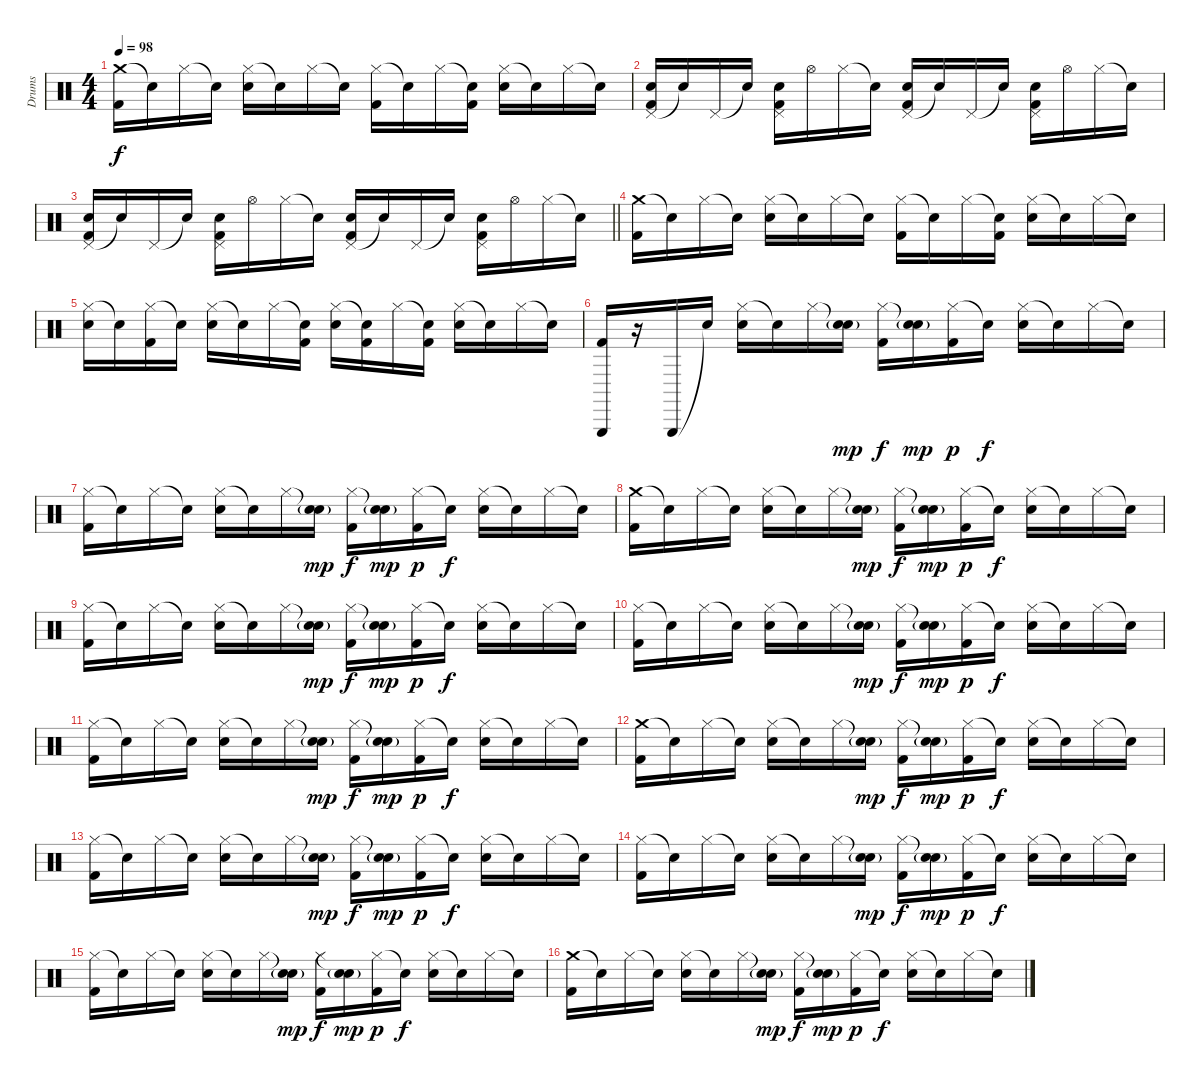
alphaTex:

\track ("Drums" "Drums") {instrument percussion}
\staff {score}
\articulation defaults
\ts (4 4)
\tempo 98
\clef neutral
\ks c
("Crash medium (hit)" "Kick (hit) 2").16{dy f} "Snare (hit)"{t}.16 "Hi-Hat (closed)".16 "Snare (hit)"{t}.16 ("Hi-Hat (closed)" "Snare (hit) 2").16 "Snare (hit)"{t}.16 "Hi-Hat (closed)".16 "Snare (hit)"{t}.16 ("Hi-Hat (closed)" "Kick (hit) 2").16 "Snare (hit)"{t}.16 "Hi-Hat (closed)".16 ("Snare (hit)"{t} "Kick (hit) 2").16 ("Hi-Hat (closed)" "Snare (hit) 2").16 "Snare (hit)"{t}.16 "Hi-Hat (closed)".16 "Snare (hit)"{t}.16 |
("Pedal Hi-Hat (hit)" "Snare (hit) 2" "Kick (hit) 2").16 "Snare (hit)"{t}.16 "Pedal Hi-Hat (hit)".16 "Snare (hit)"{t}.16 ("Pedal Hi-Hat (hit)" "Snare (hit) 2" "Kick (hit) 2").16 "Hi-Hat (open)".16 "Hi-Hat (closed)".16 "Snare (hit)"{t}.16 ("Pedal Hi-Hat (hit)" "Snare (hit) 2" "Kick (hit) 2").16 "Snare (hit)"{t}.16 "Pedal Hi-Hat (hit)".16 "Snare (hit)"{t}.16 ("Pedal Hi-Hat (hit)" "Snare (hit) 2" "Kick (hit) 2").16 "Hi-Hat (open)".16 "Hi-Hat (closed)".16 "Snare (hit)"{t}.16 |
\barLineRight lightlight
("Pedal Hi-Hat (hit)" "Snare (hit) 2" "Kick (hit) 2").16 "Snare (hit)"{t}.16 "Pedal Hi-Hat (hit)".16 "Snare (hit)"{t}.16 ("Pedal Hi-Hat (hit)" "Snare (hit) 2" "Kick (hit) 2").16 "Hi-Hat (open)".16 "Hi-Hat (closed)".16 "Snare (hit)"{t}.16 ("Pedal Hi-Hat (hit)" "Snare (hit) 2" "Kick (hit) 2").16 "Snare (hit)"{t}.16 "Pedal Hi-Hat (hit)".16 "Snare (hit)"{t}.16 ("Pedal Hi-Hat (hit)" "Snare (hit) 2" "Kick (hit) 2").16 "Hi-Hat (open)".16 "Hi-Hat (closed)".16 "Snare (hit)"{t}.16 |
("Crash medium (hit)" "Kick (hit) 2").16 "Snare (hit)"{t}.16 "Hi-Hat (closed)".16 "Snare (hit)"{t}.16 ("Hi-Hat (closed)" "Snare (hit) 2").16 "Snare (hit)"{t}.16 "Hi-Hat (closed)".16 "Snare (hit)"{t}.16 ("Hi-Hat (closed)" "Kick (hit) 2").16 "Snare (hit)"{t}.16 "Hi-Hat (closed)".16 ("Snare (hit)"{t} "Kick (hit) 2").16 ("Hi-Hat (closed)" "Snare (hit) 2").16 "Snare (hit)"{t}.16 "Hi-Hat (closed)".16 "Snare (hit)"{t}.16 |
("Hi-Hat (closed)" "Snare (hit) 2").16 "Snare (hit)"{t}.16 ("Hi-Hat (closed)" "Kick (hit) 2").16 "Snare (hit)"{t}.16 ("Hi-Hat (closed)" "Snare (hit) 2").16 "Snare (hit)"{t}.16 "Hi-Hat (closed)".16 ("Snare (hit)"{t} "Kick (hit) 2").16 ("Hi-Hat (closed)" "Snare (hit) 2").16 ("Snare (hit)"{t} "Kick (hit) 2").16 "Hi-Hat (closed)".16 ("Snare (hit)"{t} "Kick (hit) 2").16 ("Hi-Hat (closed)" "Snare (hit) 2").16 "Snare (hit)"{t}.16 "Hi-Hat (closed)".16 "Snare (hit)"{t}.16 |
("Triangle (hit)" "Kick (hit) 2").16 r.16 "Triangle (hit)".16 "Snare (hit)"{t}.16 ("Hi-Hat (closed)" "Snare (hit) 2").16 "Snare (hit)"{t}.16 "Hi-Hat (closed)".16 ("Snare (hit)"{t} "Snare (hit) 2"{g}).16{dy mp} ("Hi-Hat (closed)" "Kick (hit) 2").16{dy f} ("Snare (hit)"{t} "Snare (hit) 2"{g}).16{dy mp} ("Hi-Hat (closed)" "Kick (hit) 2").16{dy p} "Snare (hit)"{t}.16{dy f} ("Hi-Hat (closed)" "Snare (hit) 2").16 "Snare (hit)"{t}.16 "Hi-Hat (closed)".16 "Snare (hit)"{t}.16 |
("Hi-Hat (closed)" "Kick (hit) 2").16 "Snare (hit)"{t}.16 "Hi-Hat (closed)".16 "Snare (hit)"{t}.16 ("Hi-Hat (closed)" "Snare (hit) 2").16 "Snare (hit)"{t}.16 "Hi-Hat (closed)".16 ("Snare (hit)"{t} "Snare (hit) 2"{g}).16{dy mp} ("Hi-Hat (closed)" "Kick (hit) 2").16{dy f} ("Snare (hit)"{t} "Snare (hit) 2"{g}).16{dy mp} ("Hi-Hat (closed)" "Kick (hit) 2").16{dy p} "Snare (hit)"{t}.16{dy f} ("Hi-Hat (closed)" "Snare (hit) 2").16 "Snare (hit)"{t}.16 "Hi-Hat (closed)".16 "Snare (hit)"{t}.16 |
("Crash medium (hit)" "Kick (hit) 2").16 "Snare (hit)"{t}.16 "Hi-Hat (closed)".16 "Snare (hit)"{t}.16 ("Hi-Hat (closed)" "Snare (hit) 2").16 "Snare (hit)"{t}.16 "Hi-Hat (closed)".16 ("Snare (hit)"{t} "Snare (hit) 2"{g}).16{dy mp} ("Hi-Hat (closed)" "Kick (hit) 2").16{dy f} ("Snare (hit)"{t} "Snare (hit) 2"{g}).16{dy mp} ("Hi-Hat (closed)" "Kick (hit) 2").16{dy p} "Snare (hit)"{t}.16{dy f} ("Hi-Hat (closed)" "Snare (hit) 2").16 "Snare (hit)"{t}.16 "Hi-Hat (closed)".16 "Snare (hit)"{t}.16 |
("Hi-Hat (closed)" "Kick (hit) 2").16 "Snare (hit)"{t}.16 "Hi-Hat (closed)".16 "Snare (hit)"{t}.16 ("Hi-Hat (closed)" "Snare (hit) 2").16 "Snare (hit)"{t}.16 "Hi-Hat (closed)".16 ("Snare (hit)"{t} "Snare (hit) 2"{g}).16{dy mp} ("Hi-Hat (closed)" "Kick (hit) 2").16{dy f} ("Snare (hit)"{t} "Snare (hit) 2"{g}).16{dy mp} ("Hi-Hat (closed)" "Kick (hit) 2").16{dy p} "Snare (hit)"{t}.16{dy f} ("Hi-Hat (closed)" "Snare (hit) 2").16 "Snare (hit)"{t}.16 "Hi-Hat (closed)".16 "Snare (hit)"{t}.16 |
("Hi-Hat (closed)" "Kick (hit) 2").16 "Snare (hit)"{t}.16 "Hi-Hat (closed)".16 "Snare (hit)"{t}.16 ("Hi-Hat (closed)" "Snare (hit) 2").16 "Snare (hit)"{t}.16 "Hi-Hat (closed)".16 ("Snare (hit)"{t} "Snare (hit) 2"{g}).16{dy mp} ("Hi-Hat (closed)" "Kick (hit) 2").16{dy f} ("Snare (hit)"{t} "Snare (hit) 2"{g}).16{dy mp} ("Hi-Hat (closed)" "Kick (hit) 2").16{dy p} "Snare (hit)"{t}.16{dy f} ("Hi-Hat (closed)" "Snare (hit) 2").16 "Snare (hit)"{t}.16 "Hi-Hat (closed)".16 "Snare (hit)"{t}.16 |
("Hi-Hat (closed)" "Kick (hit) 2").16 "Snare (hit)"{t}.16 "Hi-Hat (closed)".16 "Snare (hit)"{t}.16 ("Hi-Hat (closed)" "Snare (hit) 2").16 "Snare (hit)"{t}.16 "Hi-Hat (closed)".16 ("Snare (hit)"{t} "Snare (hit) 2"{g}).16{dy mp} ("Hi-Hat (closed)" "Kick (hit) 2").16{dy f} ("Snare (hit)"{t} "Snare (hit) 2"{g}).16{dy mp} ("Hi-Hat (closed)" "Kick (hit) 2").16{dy p} "Snare (hit)"{t}.16{dy f} ("Hi-Hat (closed)" "Snare (hit) 2").16 "Snare (hit)"{t}.16 "Hi-Hat (closed)".16 "Snare (hit)"{t}.16 |
("Crash medium (hit)" "Kick (hit) 2").16 "Snare (hit)"{t}.16 "Hi-Hat (closed)".16 "Snare (hit)"{t}.16 ("Hi-Hat (closed)" "Snare (hit) 2").16 "Snare (hit)"{t}.16 "Hi-Hat (closed)".16 ("Snare (hit)"{t} "Snare (hit) 2"{g}).16{dy mp} ("Hi-Hat (closed)" "Kick (hit) 2").16{dy f} ("Snare (hit)"{t} "Snare (hit) 2"{g}).16{dy mp} ("Hi-Hat (closed)" "Kick (hit) 2").16{dy p} "Snare (hit)"{t}.16{dy f} ("Hi-Hat (closed)" "Snare (hit) 2").16 "Snare (hit)"{t}.16 "Hi-Hat (closed)".16 "Snare (hit)"{t}.16 |
("Hi-Hat (closed)" "Kick (hit) 2").16 "Snare (hit)"{t}.16 "Hi-Hat (closed)".16 "Snare (hit)"{t}.16 ("Hi-Hat (closed)" "Snare (hit) 2").16 "Snare (hit)"{t}.16 "Hi-Hat (closed)".16 ("Snare (hit)"{t} "Snare (hit) 2"{g}).16{dy mp} ("Hi-Hat (closed)" "Kick (hit) 2").16{dy f} ("Snare (hit)"{t} "Snare (hit) 2"{g}).16{dy mp} ("Hi-Hat (closed)" "Kick (hit) 2").16{dy p} "Snare (hit)"{t}.16{dy f} ("Hi-Hat (closed)" "Snare (hit) 2").16 "Snare (hit)"{t}.16 "Hi-Hat (closed)".16 "Snare (hit)"{t}.16 |
("Hi-Hat (closed)" "Kick (hit) 2").16 "Snare (hit)"{t}.16 "Hi-Hat (closed)".16 "Snare (hit)"{t}.16 ("Hi-Hat (closed)" "Snare (hit) 2").16 "Snare (hit)"{t}.16 "Hi-Hat (closed)".16 ("Snare (hit)"{t} "Snare (hit) 2"{g}).16{dy mp} ("Hi-Hat (closed)" "Kick (hit) 2").16{dy f} ("Snare (hit)"{t} "Snare (hit) 2"{g}).16{dy mp} ("Hi-Hat (closed)" "Kick (hit) 2").16{dy p} "Snare (hit)"{t}.16{dy f} ("Hi-Hat (closed)" "Snare (hit) 2").16 "Snare (hit)"{t}.16 "Hi-Hat (closed)".16 "Snare (hit)"{t}.16 |
("Hi-Hat (closed)" "Kick (hit) 2").16 "Snare (hit)"{t}.16 "Hi-Hat (closed)".16 "Snare (hit)"{t}.16 ("Hi-Hat (closed)" "Snare (hit) 2").16 "Snare (hit)"{t}.16 "Hi-Hat (closed)".16 ("Snare (hit)"{t} "Snare (hit) 2"{g}).16{dy mp} ("Hi-Hat (closed)" "Kick (hit) 2").16{dy f} ("Snare (hit)"{t} "Snare (hit) 2"{g}).16{dy mp} ("Hi-Hat (closed)" "Kick (hit) 2").16{dy p} "Snare (hit)"{t}.16{dy f} ("Hi-Hat (closed)" "Snare (hit) 2").16 "Snare (hit)"{t}.16 "Hi-Hat (closed)".16 "Snare (hit)"{t}.16 |
("Crash medium (hit)" "Kick (hit) 2").16{volume 2} "Snare (hit)"{t}.16 "Hi-Hat (closed)".16 "Snare (hit)"{t}.16 ("Hi-Hat (closed)" "Snare (hit) 2").16 "Snare (hit)"{t}.16 "Hi-Hat (closed)".16 ("Snare (hit)"{t} "Snare (hit) 2"{g}).16{dy mp} ("Hi-Hat (closed)" "Kick (hit) 2").16{dy f} ("Snare (hit)"{t} "Snare (hit) 2"{g}).16{dy mp} ("Hi-Hat (closed)" "Kick (hit) 2").16{dy p} "Snare (hit)"{t}.16{dy f} ("Hi-Hat (closed)" "Snare (hit) 2").16 "Snare (hit)"{t}.16 "Hi-Hat (closed)".16 "Snare (hit)"{t}.16
